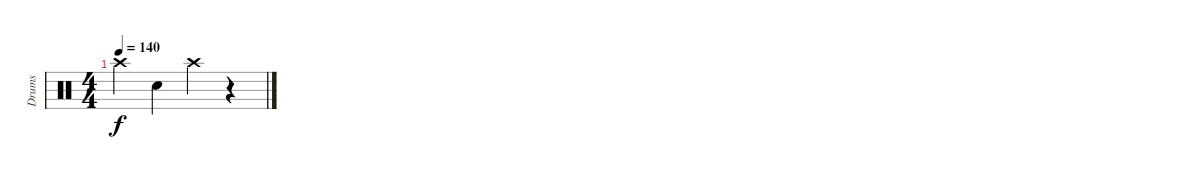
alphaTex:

\track ("Drums" "Drums") {instrument percussion}
\staff {score}
\articulation defaults
\ts (4 4)
\tempo 140
\clef neutral
\ks c "Crash high (hit)".4{dy f} "Snare (hit) 2".4 "Crash high (hit)".4
r.4
